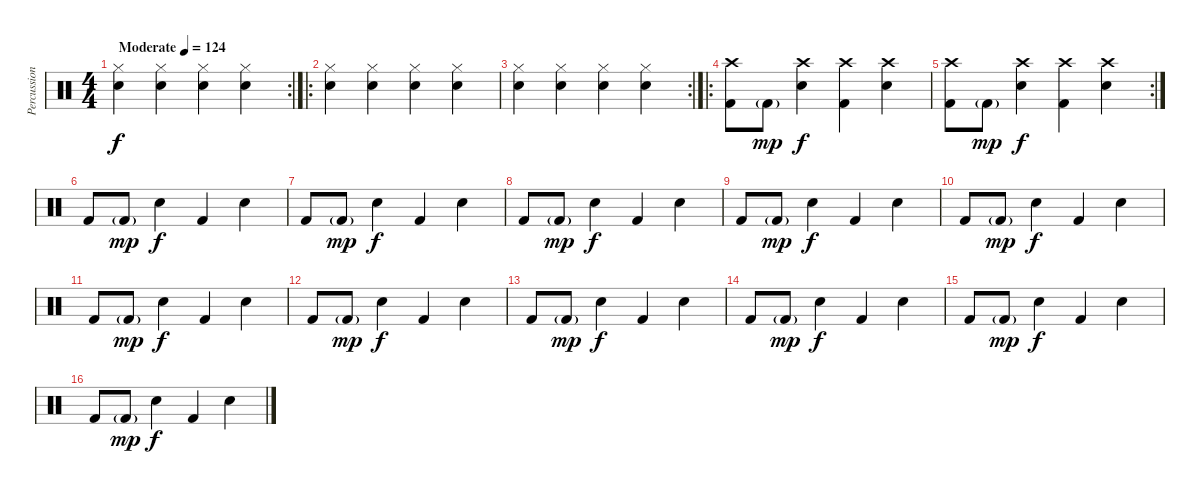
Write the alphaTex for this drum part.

\track ("Percussion" "Percussion") {instrument percussion}
\staff {score}
\articulation defaults
\rc 2
\ts (4 4)
\tempo (124 "Moderate")
\clef neutral
\ks c
("Snare (hit) 2" "Hi-Hat (closed)").4{dy f} ("Snare (hit) 2" "Hi-Hat (closed)").4 ("Snare (hit) 2" "Hi-Hat (closed)").4 ("Snare (hit) 2" "Hi-Hat (closed)").4 |
\ro
("Snare (hit) 2" "Hi-Hat (closed)").4 ("Snare (hit) 2" "Hi-Hat (closed)").4 ("Snare (hit) 2" "Hi-Hat (closed)").4 ("Snare (hit) 2" "Hi-Hat (closed)").4 |
\rc 2
("Snare (hit) 2" "Hi-Hat (closed)").4 ("Snare (hit) 2" "Hi-Hat (closed)").4 ("Snare (hit) 2" "Hi-Hat (closed)").4 ("Snare (hit) 2" "Hi-Hat (closed)").4 |
\ro
("Kick (hit) 2" "Crash high (hit)").8 "Kick (hit) 2"{g}.8{dy mp} ("Electric Snare (hit)" "Crash high (hit)").4{dy f} ("Kick (hit) 2" "Crash high (hit)").4 ("Electric Snare (hit)" "Crash high (hit)").4 |
\rc 2
("Kick (hit) 2" "Crash high (hit)").8 "Kick (hit) 2"{g}.8{dy mp} ("Electric Snare (hit)" "Crash high (hit)").4{dy f} ("Kick (hit) 2" "Crash high (hit)").4 ("Electric Snare (hit)" "Crash high (hit)").4 |
"Kick (hit) 2".8 "Kick (hit) 2"{g}.8{dy mp} "Electric Snare (hit)".4{dy f} "Kick (hit) 2".4 "Electric Snare (hit)".4 |
"Kick (hit) 2".8 "Kick (hit) 2"{g}.8{dy mp} "Electric Snare (hit)".4{dy f} "Kick (hit) 2".4 "Electric Snare (hit)".4 |
"Kick (hit) 2".8 "Kick (hit) 2"{g}.8{dy mp} "Electric Snare (hit)".4{dy f} "Kick (hit) 2".4 "Electric Snare (hit)".4 |
"Kick (hit) 2".8 "Kick (hit) 2"{g}.8{dy mp} "Electric Snare (hit)".4{dy f} "Kick (hit) 2".4 "Electric Snare (hit)".4 |
"Kick (hit) 2".8 "Kick (hit) 2"{g}.8{dy mp} "Electric Snare (hit)".4{dy f} "Kick (hit) 2".4 "Electric Snare (hit)".4 |
"Kick (hit) 2".8 "Kick (hit) 2"{g}.8{dy mp} "Electric Snare (hit)".4{dy f} "Kick (hit) 2".4 "Electric Snare (hit)".4 |
"Kick (hit) 2".8 "Kick (hit) 2"{g}.8{dy mp} "Electric Snare (hit)".4{dy f} "Kick (hit) 2".4 "Electric Snare (hit)".4 |
"Kick (hit) 2".8 "Kick (hit) 2"{g}.8{dy mp} "Electric Snare (hit)".4{dy f} "Kick (hit) 2".4 "Electric Snare (hit)".4 |
"Kick (hit) 2".8 "Kick (hit) 2"{g}.8{dy mp} "Electric Snare (hit)".4{dy f} "Kick (hit) 2".4 "Electric Snare (hit)".4 |
"Kick (hit) 2".8 "Kick (hit) 2"{g}.8{dy mp} "Electric Snare (hit)".4{dy f} "Kick (hit) 2".4 "Electric Snare (hit)".4 |
"Kick (hit) 2".8 "Kick (hit) 2"{g}.8{dy mp} "Electric Snare (hit)".4{dy f} "Kick (hit) 2".4 "Electric Snare (hit)".4
